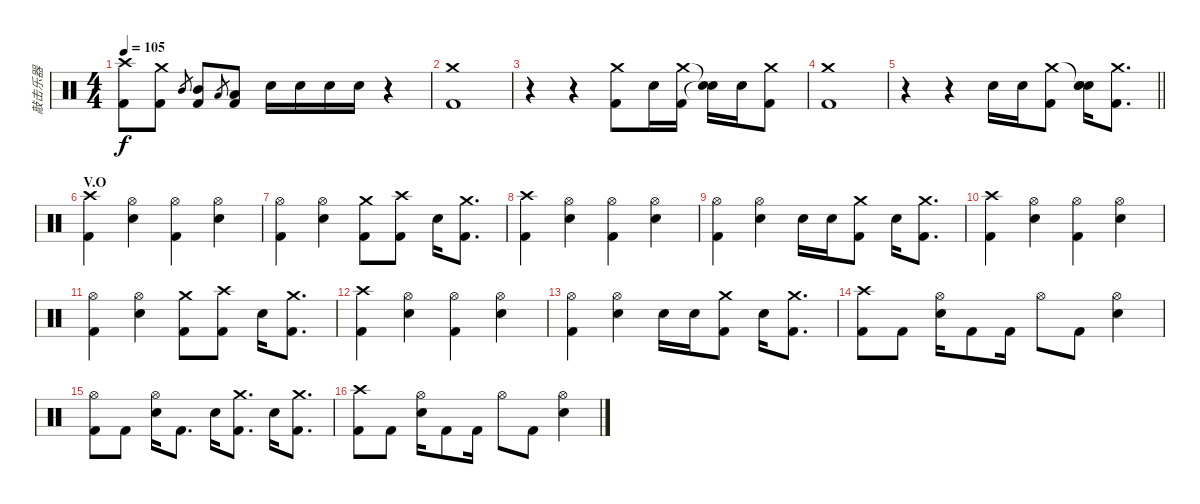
\track ("敲击乐器" "敲击乐器") {instrument percussion}
\staff {score}
\articulation defaults
\ts (4 4)
\tempo 105
\clef neutral
\ks c
("Crash high (hit)" "Kick (hit) 2").8{dy f} ("Crash medium (hit)" "Kick (hit) 2").8 "Mid Tom (hit)".8{gr} ("Mid Tom (hit)" "Kick (hit) 2").8 "Low Tom (hit)".8{gr} ("Low Tom (hit)" "Kick (hit) 2").8 "Electric Snare (hit)".16 "Electric Snare (hit)".16 "Electric Snare (hit)".16 "Electric Snare (hit)".16 r.4 |
("Crash medium (hit)" "Kick (hit) 2").1 |
r.4 r.4 ("Crash medium (hit)" "Kick (hit) 2").8 "Electric Snare (hit)".16 ("Crash medium (hit)" "Kick (hit) 2").16 ("Snare (hit)"{t} "Snare (hit)"{t}).16 "Electric Snare (hit)".16 ("Crash medium (hit)" "Kick (hit) 2").8 |
("Crash medium (hit)" "Kick (hit) 2").1 |
\barLineRight lightlight
r.4 r.4 "Electric Snare (hit)".16 "Electric Snare (hit)".16 ("Crash medium (hit)" "Kick (hit) 2").8 ("Snare (hit)"{t} "Electric Snare (hit)" "Snare (hit)").16 ("Crash medium (hit)" "Kick (hit) 2").8{d} |
\section ("" "V.O")
("Crash high (hit)" "Kick (hit) 2").4 ("Hi-Hat (open)" "Electric Snare (hit)").4 ("Hi-Hat (open)" "Kick (hit) 2").4 ("Hi-Hat (open)" "Electric Snare (hit)").4 |
("Hi-Hat (open)" "Kick (hit) 2").4 ("Hi-Hat (open)" "Electric Snare (hit)").4 ("Crash medium (hit)" "Kick (hit) 2").8 ("Crash high (hit)" "Kick (hit) 2").8 "Electric Snare (hit)".16 ("Crash medium (hit)" "Kick (hit) 2").8{d} |
("Crash high (hit)" "Kick (hit) 2").4 ("Hi-Hat (open)" "Electric Snare (hit)").4 ("Hi-Hat (open)" "Kick (hit) 2").4 ("Hi-Hat (open)" "Electric Snare (hit)").4 |
("Hi-Hat (open)" "Kick (hit) 2").4 ("Hi-Hat (open)" "Electric Snare (hit)").4 "Electric Snare (hit)".16 "Electric Snare (hit)".16 ("Crash medium (hit)" "Kick (hit) 2").8 "Electric Snare (hit)".16 ("Crash medium (hit)" "Kick (hit) 2").8{d} |
("Crash high (hit)" "Kick (hit) 2").4 ("Hi-Hat (open)" "Electric Snare (hit)").4 ("Hi-Hat (open)" "Kick (hit) 2").4 ("Hi-Hat (open)" "Electric Snare (hit)").4 |
("Hi-Hat (open)" "Kick (hit) 2").4 ("Hi-Hat (open)" "Electric Snare (hit)").4 ("Crash medium (hit)" "Kick (hit) 2").8 ("Crash high (hit)" "Kick (hit) 2").8 "Electric Snare (hit)".16 ("Crash medium (hit)" "Kick (hit) 2").8{d} |
("Crash high (hit)" "Kick (hit) 2").4 ("Hi-Hat (open)" "Electric Snare (hit)").4 ("Hi-Hat (open)" "Kick (hit) 2").4 ("Hi-Hat (open)" "Electric Snare (hit)").4 |
("Hi-Hat (open)" "Kick (hit) 2").4 ("Hi-Hat (open)" "Electric Snare (hit)").4 "Electric Snare (hit)".16 "Electric Snare (hit)".16 ("Crash medium (hit)" "Kick (hit) 2").8 "Electric Snare (hit)".16 ("Crash medium (hit)" "Kick (hit) 2").8{d} |
("Crash high (hit)" "Kick (hit) 2").8 "Kick (hit) 2".8 ("Hi-Hat (open)" "Electric Snare (hit)").16 "Kick (hit) 2".8 "Kick (hit) 2".16 "Hi-Hat (open)".8 "Kick (hit) 2".8 ("Hi-Hat (open)" "Electric Snare (hit)").4 |
("Hi-Hat (open)" "Kick (hit) 2").8 "Kick (hit) 2".8 ("Hi-Hat (open)" "Electric Snare (hit)").16 "Kick (hit) 2".8{d} "Electric Snare (hit)".16 ("Crash medium (hit)" "Kick (hit) 2").8{d} "Electric Snare (hit)".16 ("Crash medium (hit)" "Kick (hit) 2").8{d} |
("Crash high (hit)" "Kick (hit) 2").8 "Kick (hit) 2".8 ("Hi-Hat (open)" "Electric Snare (hit)").16 "Kick (hit) 2".8 "Kick (hit) 2".16 "Hi-Hat (open)".8 "Kick (hit) 2".8 ("Hi-Hat (open)" "Electric Snare (hit)").4
